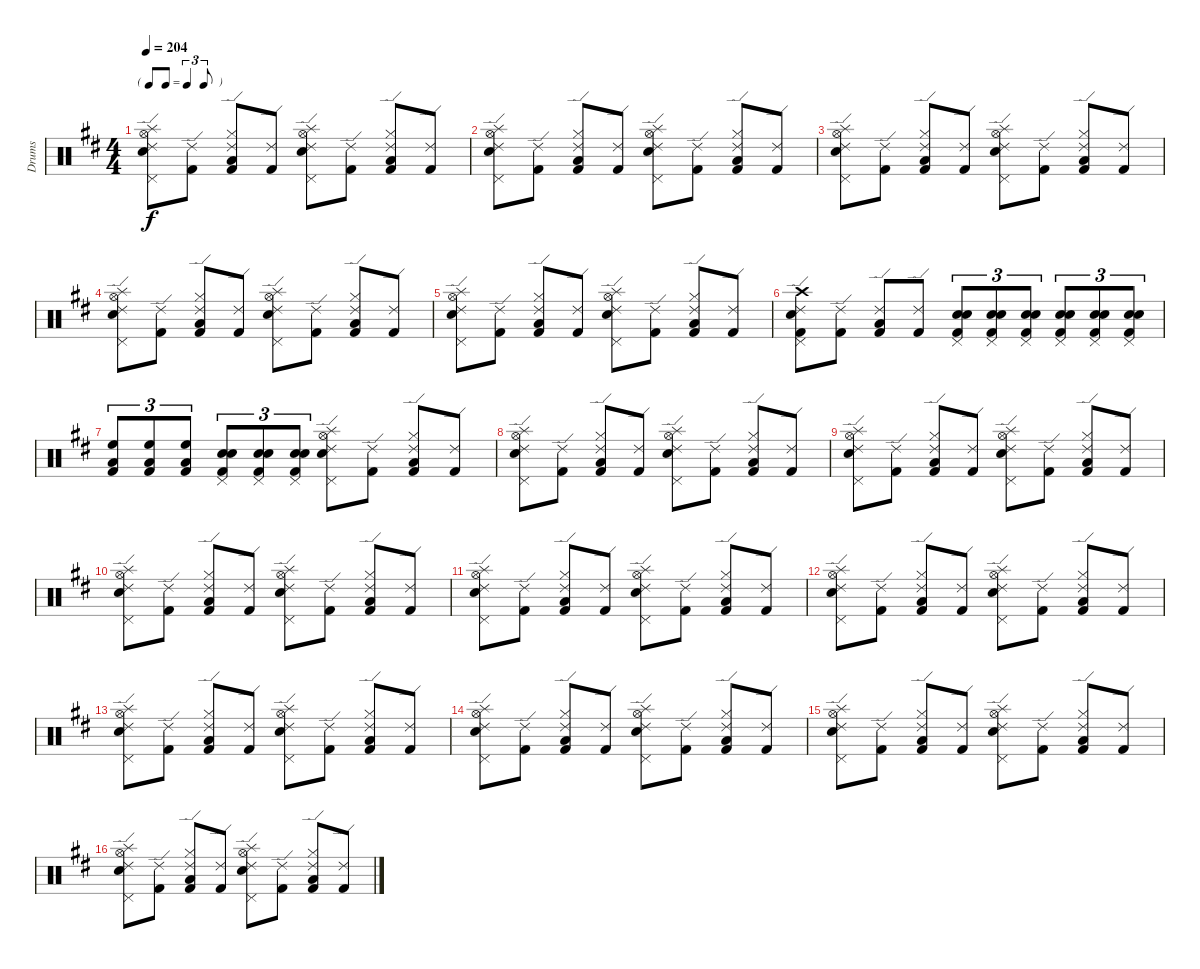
\track ("Drums" "Drums") {instrument percussion}
\staff {score}
\articulation defaults
\ts (4 4)
\tf triplet8th
\tempo 204
\clef neutral
\ks d
("Hi-Hat (open)" "Splash (hit)" "Snare (hit) 2" "Ride (edge) 2" "Pedal Hi-Hat (hit)").8{dy f} ("Kick (hit) 2" "Ride (edge) 2").8 ("Hi-Hat (closed)" "Low Floor Tom (hit)" "Ride (edge) 2" "Kick (hit) 2").8 ("Kick (hit) 2" "Ride (edge) 2").8 ("Hi-Hat (open)" "Splash (hit)" "Snare (hit) 2" "Ride (edge) 2" "Pedal Hi-Hat (hit)").8 ("Kick (hit) 2" "Ride (edge) 2").8 ("Hi-Hat (closed)" "Low Floor Tom (hit)" "Ride (edge) 2" "Kick (hit) 2").8 ("Kick (hit) 2" "Ride (edge) 2").8 |
("Hi-Hat (open)" "Splash (hit)" "Snare (hit) 2" "Ride (edge) 2" "Pedal Hi-Hat (hit)").8 ("Kick (hit) 2" "Ride (edge) 2").8 ("Hi-Hat (closed)" "Low Floor Tom (hit)" "Ride (edge) 2" "Kick (hit) 2").8 ("Kick (hit) 2" "Ride (edge) 2").8 ("Hi-Hat (open)" "Splash (hit)" "Snare (hit) 2" "Ride (edge) 2" "Pedal Hi-Hat (hit)").8 ("Kick (hit) 2" "Ride (edge) 2").8 ("Hi-Hat (closed)" "Low Floor Tom (hit)" "Ride (edge) 2" "Kick (hit) 2").8 ("Kick (hit) 2" "Ride (edge) 2").8 |
("Hi-Hat (open)" "Splash (hit)" "Snare (hit) 2" "Ride (edge) 2" "Pedal Hi-Hat (hit)").8 ("Kick (hit) 2" "Ride (edge) 2").8 ("Hi-Hat (closed)" "Low Floor Tom (hit)" "Ride (edge) 2" "Kick (hit) 2").8 ("Kick (hit) 2" "Ride (edge) 2").8 ("Hi-Hat (open)" "Splash (hit)" "Snare (hit) 2" "Ride (edge) 2" "Pedal Hi-Hat (hit)").8 ("Kick (hit) 2" "Ride (edge) 2").8 ("Hi-Hat (closed)" "Low Floor Tom (hit)" "Ride (edge) 2" "Kick (hit) 2").8 ("Kick (hit) 2" "Ride (edge) 2").8 |
("Hi-Hat (open)" "Splash (hit)" "Snare (hit) 2" "Ride (edge) 2" "Pedal Hi-Hat (hit)").8 ("Kick (hit) 2" "Ride (edge) 2").8 ("Hi-Hat (closed)" "Low Floor Tom (hit)" "Ride (edge) 2" "Kick (hit) 2").8 ("Kick (hit) 2" "Ride (edge) 2").8 ("Hi-Hat (open)" "Splash (hit)" "Snare (hit) 2" "Ride (edge) 2" "Pedal Hi-Hat (hit)").8 ("Kick (hit) 2" "Ride (edge) 2").8 ("Hi-Hat (closed)" "Low Floor Tom (hit)" "Ride (edge) 2" "Kick (hit) 2").8 ("Kick (hit) 2" "Ride (edge) 2").8 |
("Hi-Hat (open)" "Splash (hit)" "Snare (hit) 2" "Ride (edge) 2" "Pedal Hi-Hat (hit)").8 ("Kick (hit) 2" "Ride (edge) 2").8 ("Hi-Hat (closed)" "Low Floor Tom (hit)" "Ride (edge) 2" "Kick (hit) 2").8 ("Kick (hit) 2" "Ride (edge) 2").8 ("Hi-Hat (open)" "Splash (hit)" "Snare (hit) 2" "Ride (edge) 2" "Pedal Hi-Hat (hit)").8 ("Kick (hit) 2" "Ride (edge) 2").8 ("Hi-Hat (closed)" "Low Floor Tom (hit)" "Ride (edge) 2" "Kick (hit) 2").8 ("Kick (hit) 2" "Ride (edge) 2").8 |
("Crash high (hit)" "Kick (hit) 2" "Snare (hit) 2" "Ride (edge) 2" "Pedal Hi-Hat (hit)").8 ("Kick (hit) 2" "Ride (edge) 2").8 ("Low Floor Tom (hit)" "Ride (edge) 2" "Kick (hit) 2").8 ("Kick (hit) 2" "Ride (edge) 2").8 ("Kick (hit) 2" "Snare (hit) 2" "Snare (hit) 2" "Pedal Hi-Hat (hit)").8{tu (3 2)} ("Kick (hit) 2" "Snare (hit) 2" "Snare (hit) 2" "Pedal Hi-Hat (hit)").8{tu (3 2)} ("Kick (hit) 2" "Snare (hit) 2" "Snare (hit) 2" "Pedal Hi-Hat (hit)").8{tu (3 2)} ("Kick (hit) 2" "Snare (hit) 2" "Snare (hit) 2" "Pedal Hi-Hat (hit)").8{tu (3 2)} ("Kick (hit) 2" "Snare (hit) 2" "Snare (hit) 2" "Pedal Hi-Hat (hit)").8{tu (3 2)} ("Kick (hit) 2" "Snare (hit) 2" "Snare (hit) 2" "Pedal Hi-Hat (hit)").8{tu (3 2)} |
("High Floor Tom (hit)" "Kick (hit) 2" "Low Tom (hit)").8{tu (3 2)} ("High Floor Tom (hit)" "Kick (hit) 2" "Low Tom (hit)").8{tu (3 2)} ("High Floor Tom (hit)" "Kick (hit) 2" "Low Tom (hit)").8{tu (3 2)} ("Kick (hit) 2" "Snare (hit) 2" "Snare (hit) 2" "Pedal Hi-Hat (hit)").8{tu (3 2)} ("Kick (hit) 2" "Snare (hit) 2" "Snare (hit) 2" "Pedal Hi-Hat (hit)").8{tu (3 2)} ("Kick (hit) 2" "Snare (hit) 2" "Snare (hit) 2" "Pedal Hi-Hat (hit)").8{tu (3 2)} ("Hi-Hat (open)" "Splash (hit)" "Snare (hit) 2" "Ride (edge) 2" "Pedal Hi-Hat (hit)").8 ("Kick (hit) 2" "Ride (edge) 2").8 ("Hi-Hat (closed)" "Low Floor Tom (hit)" "Ride (edge) 2" "Kick (hit) 2").8 ("Kick (hit) 2" "Ride (edge) 2").8 |
("Hi-Hat (open)" "Splash (hit)" "Snare (hit) 2" "Ride (edge) 2" "Pedal Hi-Hat (hit)").8 ("Kick (hit) 2" "Ride (edge) 2").8 ("Hi-Hat (closed)" "Low Floor Tom (hit)" "Ride (edge) 2" "Kick (hit) 2").8 ("Kick (hit) 2" "Ride (edge) 2").8 ("Hi-Hat (open)" "Splash (hit)" "Snare (hit) 2" "Ride (edge) 2" "Pedal Hi-Hat (hit)").8 ("Kick (hit) 2" "Ride (edge) 2").8 ("Hi-Hat (closed)" "Low Floor Tom (hit)" "Ride (edge) 2" "Kick (hit) 2").8 ("Kick (hit) 2" "Ride (edge) 2").8 |
("Hi-Hat (open)" "Splash (hit)" "Snare (hit) 2" "Ride (edge) 2" "Pedal Hi-Hat (hit)").8 ("Kick (hit) 2" "Ride (edge) 2").8 ("Hi-Hat (closed)" "Low Floor Tom (hit)" "Ride (edge) 2" "Kick (hit) 2").8 ("Kick (hit) 2" "Ride (edge) 2").8 ("Hi-Hat (open)" "Splash (hit)" "Snare (hit) 2" "Ride (edge) 2" "Pedal Hi-Hat (hit)").8 ("Kick (hit) 2" "Ride (edge) 2").8 ("Hi-Hat (closed)" "Low Floor Tom (hit)" "Ride (edge) 2" "Kick (hit) 2").8 ("Kick (hit) 2" "Ride (edge) 2").8 |
("Hi-Hat (open)" "Splash (hit)" "Snare (hit) 2" "Ride (edge) 2" "Pedal Hi-Hat (hit)").8 ("Kick (hit) 2" "Ride (edge) 2").8 ("Hi-Hat (closed)" "Low Floor Tom (hit)" "Ride (edge) 2" "Kick (hit) 2").8 ("Kick (hit) 2" "Ride (edge) 2").8 ("Hi-Hat (open)" "Splash (hit)" "Snare (hit) 2" "Ride (edge) 2" "Pedal Hi-Hat (hit)").8 ("Kick (hit) 2" "Ride (edge) 2").8 ("Hi-Hat (closed)" "Low Floor Tom (hit)" "Ride (edge) 2" "Kick (hit) 2").8 ("Kick (hit) 2" "Ride (edge) 2").8 |
("Hi-Hat (open)" "Splash (hit)" "Snare (hit) 2" "Ride (edge) 2" "Pedal Hi-Hat (hit)").8 ("Kick (hit) 2" "Ride (edge) 2").8 ("Hi-Hat (closed)" "Low Floor Tom (hit)" "Ride (edge) 2" "Kick (hit) 2").8 ("Kick (hit) 2" "Ride (edge) 2").8 ("Hi-Hat (open)" "Splash (hit)" "Snare (hit) 2" "Ride (edge) 2" "Pedal Hi-Hat (hit)").8 ("Kick (hit) 2" "Ride (edge) 2").8 ("Hi-Hat (closed)" "Low Floor Tom (hit)" "Ride (edge) 2" "Kick (hit) 2").8 ("Kick (hit) 2" "Ride (edge) 2").8 |
("Hi-Hat (open)" "Splash (hit)" "Snare (hit) 2" "Ride (edge) 2" "Pedal Hi-Hat (hit)").8 ("Kick (hit) 2" "Ride (edge) 2").8 ("Hi-Hat (closed)" "Low Floor Tom (hit)" "Ride (edge) 2" "Kick (hit) 2").8 ("Kick (hit) 2" "Ride (edge) 2").8 ("Hi-Hat (open)" "Splash (hit)" "Snare (hit) 2" "Ride (edge) 2" "Pedal Hi-Hat (hit)").8 ("Kick (hit) 2" "Ride (edge) 2").8 ("Hi-Hat (closed)" "Low Floor Tom (hit)" "Ride (edge) 2" "Kick (hit) 2").8 ("Kick (hit) 2" "Ride (edge) 2").8 |
("Hi-Hat (open)" "Splash (hit)" "Snare (hit) 2" "Ride (edge) 2" "Pedal Hi-Hat (hit)").8 ("Kick (hit) 2" "Ride (edge) 2").8 ("Hi-Hat (closed)" "Low Floor Tom (hit)" "Ride (edge) 2" "Kick (hit) 2").8 ("Kick (hit) 2" "Ride (edge) 2").8 ("Hi-Hat (open)" "Splash (hit)" "Snare (hit) 2" "Ride (edge) 2" "Pedal Hi-Hat (hit)").8 ("Kick (hit) 2" "Ride (edge) 2").8 ("Hi-Hat (closed)" "Low Floor Tom (hit)" "Ride (edge) 2" "Kick (hit) 2").8 ("Kick (hit) 2" "Ride (edge) 2").8 |
("Hi-Hat (open)" "Splash (hit)" "Snare (hit) 2" "Ride (edge) 2" "Pedal Hi-Hat (hit)").8 ("Kick (hit) 2" "Ride (edge) 2").8 ("Hi-Hat (closed)" "Low Floor Tom (hit)" "Ride (edge) 2" "Kick (hit) 2").8 ("Kick (hit) 2" "Ride (edge) 2").8 ("Hi-Hat (open)" "Splash (hit)" "Snare (hit) 2" "Ride (edge) 2" "Pedal Hi-Hat (hit)").8 ("Kick (hit) 2" "Ride (edge) 2").8 ("Hi-Hat (closed)" "Low Floor Tom (hit)" "Ride (edge) 2" "Kick (hit) 2").8 ("Kick (hit) 2" "Ride (edge) 2").8 |
("Hi-Hat (open)" "Splash (hit)" "Snare (hit) 2" "Ride (edge) 2" "Pedal Hi-Hat (hit)").8 ("Kick (hit) 2" "Ride (edge) 2").8 ("Hi-Hat (closed)" "Low Floor Tom (hit)" "Ride (edge) 2" "Kick (hit) 2").8 ("Kick (hit) 2" "Ride (edge) 2").8 ("Hi-Hat (open)" "Splash (hit)" "Snare (hit) 2" "Ride (edge) 2" "Pedal Hi-Hat (hit)").8 ("Kick (hit) 2" "Ride (edge) 2").8 ("Hi-Hat (closed)" "Low Floor Tom (hit)" "Ride (edge) 2" "Kick (hit) 2").8 ("Kick (hit) 2" "Ride (edge) 2").8 |
("Hi-Hat (open)" "Splash (hit)" "Snare (hit) 2" "Ride (edge) 2" "Pedal Hi-Hat (hit)").8 ("Kick (hit) 2" "Ride (edge) 2").8 ("Hi-Hat (closed)" "Low Floor Tom (hit)" "Ride (edge) 2" "Kick (hit) 2").8 ("Kick (hit) 2" "Ride (edge) 2").8 ("Hi-Hat (open)" "Splash (hit)" "Snare (hit) 2" "Ride (edge) 2" "Pedal Hi-Hat (hit)").8 ("Kick (hit) 2" "Ride (edge) 2").8 ("Hi-Hat (closed)" "Low Floor Tom (hit)" "Ride (edge) 2" "Kick (hit) 2").8 ("Kick (hit) 2" "Ride (edge) 2").8
